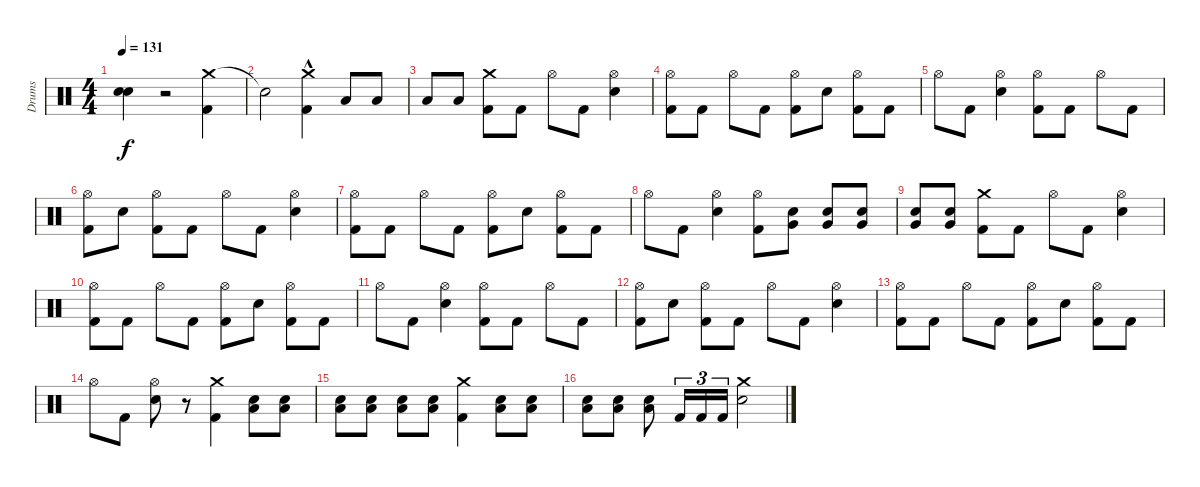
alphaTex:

\track ("Drums" "Drums") {instrument percussion}
\staff {score}
\articulation defaults
\ts (4 4)
\tempo 131
\clef neutral
\ks c
("Snare (hit)"{t} "Snare (hit)"{t}).4{dy f} r.2 ("Crash medium (hit)" "Kick (hit) 2").4 |
"Snare (hit)"{t}.2 ("Crash medium (hit)" "Kick (hit) 2"{hac}).4 "Low Floor Tom (hit)".8 "Low Floor Tom (hit)".8 |
"Low Floor Tom (hit)".8 "Low Floor Tom (hit)".8 ("Crash medium (hit)" "Kick (hit) 2").8 "Kick (hit) 2".8 "Hi-Hat (open)".8 "Kick (hit) 2".8 ("Hi-Hat (open)" "Electric Snare (hit)").4 |
("Hi-Hat (open)" "Kick (hit) 2").8 "Kick (hit) 2".8 "Hi-Hat (open)".8 "Kick (hit) 2".8 ("Hi-Hat (open)" "Kick (hit) 2").8 "Electric Snare (hit)".8 ("Hi-Hat (open)" "Kick (hit) 2").8 "Kick (hit) 2".8 |
"Hi-Hat (open)".8 "Kick (hit) 2".8 ("Hi-Hat (open)" "Electric Snare (hit)").4 ("Hi-Hat (open)" "Kick (hit) 2").8 "Kick (hit) 2".8 "Hi-Hat (open)".8 "Kick (hit) 2".8 |
("Hi-Hat (open)" "Kick (hit) 2").8 "Electric Snare (hit)".8 ("Hi-Hat (open)" "Kick (hit) 2").8 "Kick (hit) 2".8 "Hi-Hat (open)".8 "Kick (hit) 2".8 ("Hi-Hat (open)" "Electric Snare (hit)").4 |
("Hi-Hat (open)" "Kick (hit) 2").8 "Kick (hit) 2".8 "Hi-Hat (open)".8 "Kick (hit) 2".8 ("Hi-Hat (open)" "Kick (hit) 2").8 "Electric Snare (hit)".8 ("Hi-Hat (open)" "Kick (hit) 2").8 "Kick (hit) 2".8 |
"Hi-Hat (open)".8 "Kick (hit) 2".8 ("Hi-Hat (open)" "Electric Snare (hit)").4 ("Hi-Hat (open)" "Kick (hit) 2").8 ("Very Low Tom (hit)" "Electric Snare (hit)").8 ("Very Low Tom (hit)" "Electric Snare (hit)").8 ("Very Low Tom (hit)" "Electric Snare (hit)").8 |
("Very Low Tom (hit)" "Electric Snare (hit)").8 ("Very Low Tom (hit)" "Electric Snare (hit)").8 ("Crash medium (hit)" "Kick (hit) 2").8 "Kick (hit) 2".8 "Hi-Hat (open)".8 "Kick (hit) 2".8 ("Hi-Hat (open)" "Electric Snare (hit)").4 |
("Hi-Hat (open)" "Kick (hit) 2").8 "Kick (hit) 2".8 "Hi-Hat (open)".8 "Kick (hit) 2".8 ("Hi-Hat (open)" "Kick (hit) 2").8 "Electric Snare (hit)".8 ("Hi-Hat (open)" "Kick (hit) 2").8 "Kick (hit) 2".8 |
"Hi-Hat (open)".8 "Kick (hit) 2".8 ("Hi-Hat (open)" "Electric Snare (hit)").4 ("Hi-Hat (open)" "Kick (hit) 2").8 "Kick (hit) 2".8 "Hi-Hat (open)".8 "Kick (hit) 2".8 |
("Hi-Hat (open)" "Kick (hit) 2").8 "Electric Snare (hit)".8 ("Hi-Hat (open)" "Kick (hit) 2").8 "Kick (hit) 2".8 "Hi-Hat (open)".8 "Kick (hit) 2".8 ("Hi-Hat (open)" "Electric Snare (hit)").4 |
("Hi-Hat (open)" "Kick (hit) 2").8 "Kick (hit) 2".8 "Hi-Hat (open)".8 "Kick (hit) 2".8 ("Hi-Hat (open)" "Kick (hit) 2").8 "Electric Snare (hit)".8 ("Hi-Hat (open)" "Kick (hit) 2").8 "Kick (hit) 2".8 |
"Hi-Hat (open)".8 "Kick (hit) 2".8 ("Hi-Hat (open)" "Electric Snare (hit)").8 r.8 ("Crash medium (hit)" "Kick (hit) 2").4 ("Low Floor Tom (hit)" "Electric Snare (hit)").8{volume 6} ("Low Floor Tom (hit)" "Electric Snare (hit)").8{volume 8} |
("Low Floor Tom (hit)" "Electric Snare (hit)").8{volume 9} ("Low Floor Tom (hit)" "Electric Snare (hit)").8{volume 11} ("Low Floor Tom (hit)" "Electric Snare (hit)").8{volume 13} ("Low Floor Tom (hit)" "Electric Snare (hit)").8{volume 14} ("Crash medium (hit)" "Kick (hit) 2").4{volume 16} ("Low Floor Tom (hit)" "Electric Snare (hit)").8 ("Low Floor Tom (hit)" "Electric Snare (hit)").8 |
("Low Floor Tom (hit)" "Electric Snare (hit)").8 ("Low Floor Tom (hit)" "Electric Snare (hit)").8 ("Low Floor Tom (hit)" "Electric Snare (hit)").8 "Kick (hit) 2".16{tu (3 2)} "Kick (hit) 2".16{tu (3 2)} "Kick (hit) 2".16{tu (3 2)} ("Crash medium (hit)" "Electric Snare (hit)").2
